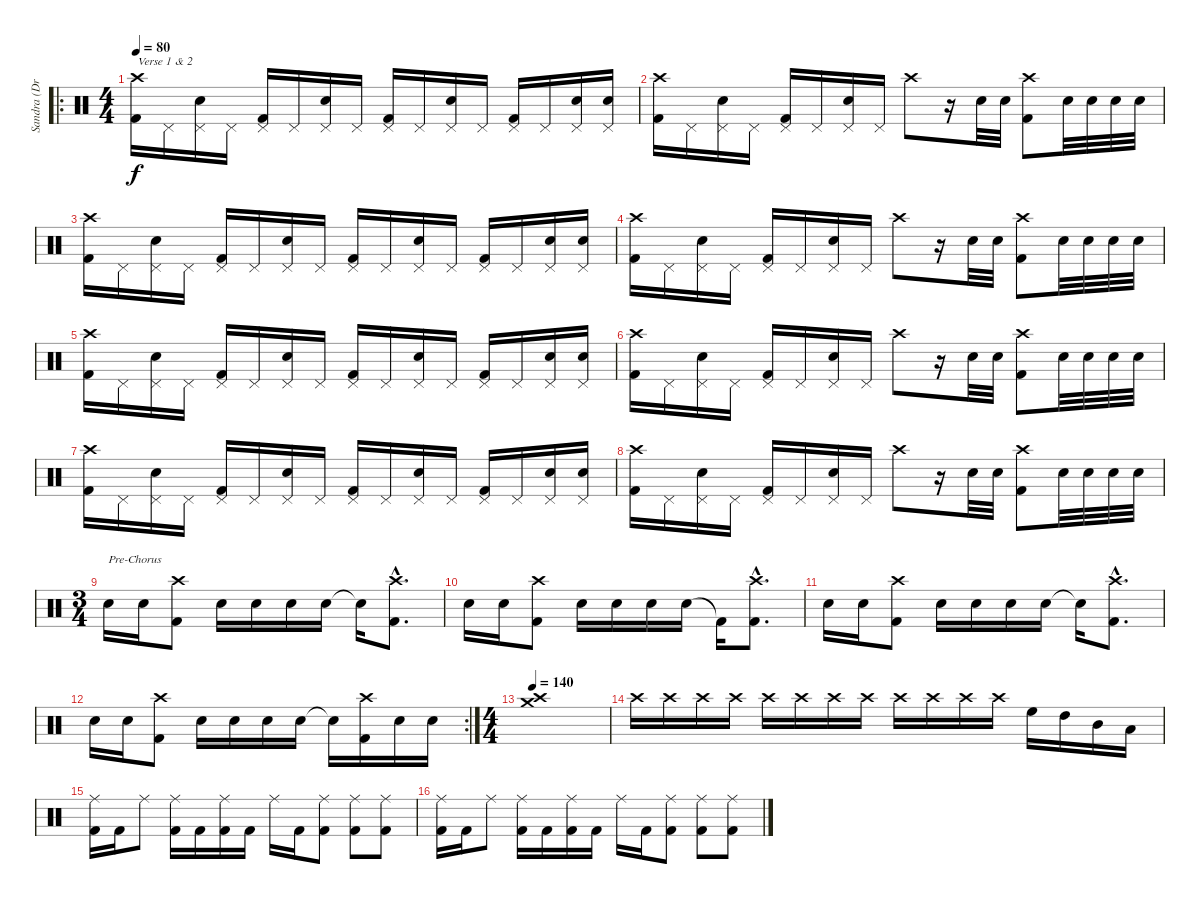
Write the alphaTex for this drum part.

\track ("Sandra (Drums)" "Sandra (Dr") {instrument percussion}
\staff {score}
\articulation defaults
\ro
\ts (4 4)
\tempo 80
\clef neutral
\ks c
("Crash high (hit)" "Kick (hit) 2").16{txt "Verse 1 & 2" dy f} "Pedal Hi-Hat (hit)".16 ("Pedal Hi-Hat (hit)" "Snare (hit) 2").16 "Pedal Hi-Hat (hit)".16 ("Pedal Hi-Hat (hit)" "Kick (hit) 2").16 "Pedal Hi-Hat (hit)".16 ("Pedal Hi-Hat (hit)" "Snare (hit) 2").16 "Pedal Hi-Hat (hit)".16 ("Pedal Hi-Hat (hit)" "Kick (hit) 2").16 "Pedal Hi-Hat (hit)".16 ("Pedal Hi-Hat (hit)" "Snare (hit) 2").16 "Pedal Hi-Hat (hit)".16 ("Pedal Hi-Hat (hit)" "Kick (hit) 2").16 "Pedal Hi-Hat (hit)".16 ("Pedal Hi-Hat (hit)" "Snare (hit) 2").16 ("Pedal Hi-Hat (hit)" "Snare (hit) 2").16 |
("Crash high (hit)" "Kick (hit) 2").16 "Pedal Hi-Hat (hit)".16 ("Pedal Hi-Hat (hit)" "Snare (hit) 2").16 "Pedal Hi-Hat (hit)".16 ("Pedal Hi-Hat (hit)" "Kick (hit) 2").16 "Pedal Hi-Hat (hit)".16 ("Pedal Hi-Hat (hit)" "Snare (hit) 2").16 "Pedal Hi-Hat (hit)".16 "Crash high (hit)".8 r.16 "Snare (hit) 2".32 "Snare (hit) 2".32 ("Crash high (hit)" "Kick (hit) 2").8 "Snare (hit) 2".32 "Snare (hit) 2".32 "Snare (hit) 2".32 "Snare (hit) 2".32 |
("Crash high (hit)" "Kick (hit) 2").16 "Pedal Hi-Hat (hit)".16 ("Pedal Hi-Hat (hit)" "Snare (hit) 2").16 "Pedal Hi-Hat (hit)".16 ("Pedal Hi-Hat (hit)" "Kick (hit) 2").16 "Pedal Hi-Hat (hit)".16 ("Pedal Hi-Hat (hit)" "Snare (hit) 2").16 "Pedal Hi-Hat (hit)".16 ("Pedal Hi-Hat (hit)" "Kick (hit) 2").16 "Pedal Hi-Hat (hit)".16 ("Pedal Hi-Hat (hit)" "Snare (hit) 2").16 "Pedal Hi-Hat (hit)".16 ("Pedal Hi-Hat (hit)" "Kick (hit) 2").16 "Pedal Hi-Hat (hit)".16 ("Pedal Hi-Hat (hit)" "Snare (hit) 2").16 ("Pedal Hi-Hat (hit)" "Snare (hit) 2").16 |
("Crash high (hit)" "Kick (hit) 2").16 "Pedal Hi-Hat (hit)".16 ("Pedal Hi-Hat (hit)" "Snare (hit) 2").16 "Pedal Hi-Hat (hit)".16 ("Pedal Hi-Hat (hit)" "Kick (hit) 2").16 "Pedal Hi-Hat (hit)".16 ("Pedal Hi-Hat (hit)" "Snare (hit) 2").16 "Pedal Hi-Hat (hit)".16 "Crash high (hit)".8 r.16 "Snare (hit) 2".32 "Snare (hit) 2".32 ("Crash high (hit)" "Kick (hit) 2").8 "Snare (hit) 2".32 "Snare (hit) 2".32 "Snare (hit) 2".32 "Snare (hit) 2".32 |
("Crash high (hit)" "Kick (hit) 2").16 "Pedal Hi-Hat (hit)".16 ("Pedal Hi-Hat (hit)" "Snare (hit) 2").16 "Pedal Hi-Hat (hit)".16 ("Pedal Hi-Hat (hit)" "Kick (hit) 2").16 "Pedal Hi-Hat (hit)".16 ("Pedal Hi-Hat (hit)" "Snare (hit) 2").16 "Pedal Hi-Hat (hit)".16 ("Pedal Hi-Hat (hit)" "Kick (hit) 2").16 "Pedal Hi-Hat (hit)".16 ("Pedal Hi-Hat (hit)" "Snare (hit) 2").16 "Pedal Hi-Hat (hit)".16 ("Pedal Hi-Hat (hit)" "Kick (hit) 2").16 "Pedal Hi-Hat (hit)".16 ("Pedal Hi-Hat (hit)" "Snare (hit) 2").16 ("Pedal Hi-Hat (hit)" "Snare (hit) 2").16 |
("Crash high (hit)" "Kick (hit) 2").16 "Pedal Hi-Hat (hit)".16 ("Pedal Hi-Hat (hit)" "Snare (hit) 2").16 "Pedal Hi-Hat (hit)".16 ("Pedal Hi-Hat (hit)" "Kick (hit) 2").16 "Pedal Hi-Hat (hit)".16 ("Pedal Hi-Hat (hit)" "Snare (hit) 2").16 "Pedal Hi-Hat (hit)".16 "Crash high (hit)".8 r.16 "Snare (hit) 2".32 "Snare (hit) 2".32 ("Crash high (hit)" "Kick (hit) 2").8 "Snare (hit) 2".32 "Snare (hit) 2".32 "Snare (hit) 2".32 "Snare (hit) 2".32 |
("Crash high (hit)" "Kick (hit) 2").16 "Pedal Hi-Hat (hit)".16 ("Pedal Hi-Hat (hit)" "Snare (hit) 2").16 "Pedal Hi-Hat (hit)".16 ("Pedal Hi-Hat (hit)" "Kick (hit) 2").16 "Pedal Hi-Hat (hit)".16 ("Pedal Hi-Hat (hit)" "Snare (hit) 2").16 "Pedal Hi-Hat (hit)".16 ("Pedal Hi-Hat (hit)" "Kick (hit) 2").16 "Pedal Hi-Hat (hit)".16 ("Pedal Hi-Hat (hit)" "Snare (hit) 2").16 "Pedal Hi-Hat (hit)".16 ("Pedal Hi-Hat (hit)" "Kick (hit) 2").16 "Pedal Hi-Hat (hit)".16 ("Pedal Hi-Hat (hit)" "Snare (hit) 2").16 ("Pedal Hi-Hat (hit)" "Snare (hit) 2").16 |
("Crash high (hit)" "Kick (hit) 2").16 "Pedal Hi-Hat (hit)".16 ("Pedal Hi-Hat (hit)" "Snare (hit) 2").16 "Pedal Hi-Hat (hit)".16 ("Pedal Hi-Hat (hit)" "Kick (hit) 2").16 "Pedal Hi-Hat (hit)".16 ("Pedal Hi-Hat (hit)" "Snare (hit) 2").16 "Pedal Hi-Hat (hit)".16 "Crash high (hit)".8 r.16 "Snare (hit) 2".32 "Snare (hit) 2".32 ("Crash high (hit)" "Kick (hit) 2").8 "Snare (hit) 2".32 "Snare (hit) 2".32 "Snare (hit) 2".32 "Snare (hit) 2".32 |
\ts (3 4)
"Snare (hit) 2".16{txt "Pre-Chorus"} "Snare (hit) 2".16 ("Crash high (hit)" "Kick (hit) 2").8 "Snare (hit) 2".16 "Snare (hit) 2".16 "Snare (hit) 2".16 "Snare (hit) 2".16 "Snare (hit)"{t}.16 ("Crash high (hit)"{hac} "Kick (hit) 2"{hac}).8{d} |
"Snare (hit) 2".16 "Snare (hit) 2".16 ("Crash high (hit)" "Kick (hit) 2").8 "Snare (hit) 2".16 "Snare (hit) 2".16 "Snare (hit) 2".16 "Snare (hit) 2".16 "Kick (hit) 2"{t}.16 ("Crash high (hit)"{hac} "Kick (hit) 2"{hac}).8{d} |
"Snare (hit) 2".16 "Snare (hit) 2".16 ("Crash high (hit)" "Kick (hit) 2").8 "Snare (hit) 2".16 "Snare (hit) 2".16 "Snare (hit) 2".16 "Snare (hit) 2".16 "Snare (hit)"{t}.16 ("Crash high (hit)"{hac} "Kick (hit) 2"{hac}).8{d} |
\rc 2 "Snare (hit) 2".16 "Snare (hit) 2".16
("Crash high (hit)" "Kick (hit) 2").8 "Snare (hit) 2".16 "Snare (hit) 2".16 "Snare (hit) 2".16 "Snare (hit) 2".16 "Snare (hit)"{t}.16 ("Crash high (hit)" "Kick (hit) 2").16 "Snare (hit) 2".16 "Snare (hit) 2".16 |
\ts (4 4)
\tempo 140
("Crash high (hit)" "Crash medium (hit)").1 |
"Crash high (hit)".16 "Crash high (hit)".16 "Crash high (hit)".16 "Crash high (hit)".16 "Crash high (hit)".16 "Crash high (hit)".16 "Crash high (hit)".16 "Crash high (hit)".16 "Crash high (hit)".16 "Crash high (hit)".16 "Crash high (hit)".16 "Crash high (hit)".16 "High Floor Tom (hit)".16 "High Tom (hit)".16 "Mid Tom (hit)".16 "Low Tom (hit)".16 |
("Ride (middle)" "Kick (hit) 2").16 "Kick (hit) 2".16 "Ride (middle)".8 ("Ride (middle)" "Kick (hit) 2").16 "Kick (hit) 2".16 ("Ride (middle)" "Kick (hit) 2").16 "Kick (hit) 2".16 "Ride (middle)".16 "Kick (hit) 2".16 ("Ride (middle)" "Kick (hit) 2").8 ("Ride (middle)" "Kick (hit) 2").8 ("Ride (middle)" "Kick (hit) 2").8 |
("Ride (middle)" "Kick (hit) 2").16 "Kick (hit) 2".16 "Ride (middle)".8 ("Ride (middle)" "Kick (hit) 2").16 "Kick (hit) 2".16 ("Ride (middle)" "Kick (hit) 2").16 "Kick (hit) 2".16 "Ride (middle)".16 "Kick (hit) 2".16 ("Ride (middle)" "Kick (hit) 2").8 ("Ride (middle)" "Kick (hit) 2").8 ("Ride (middle)" "Kick (hit) 2").8
